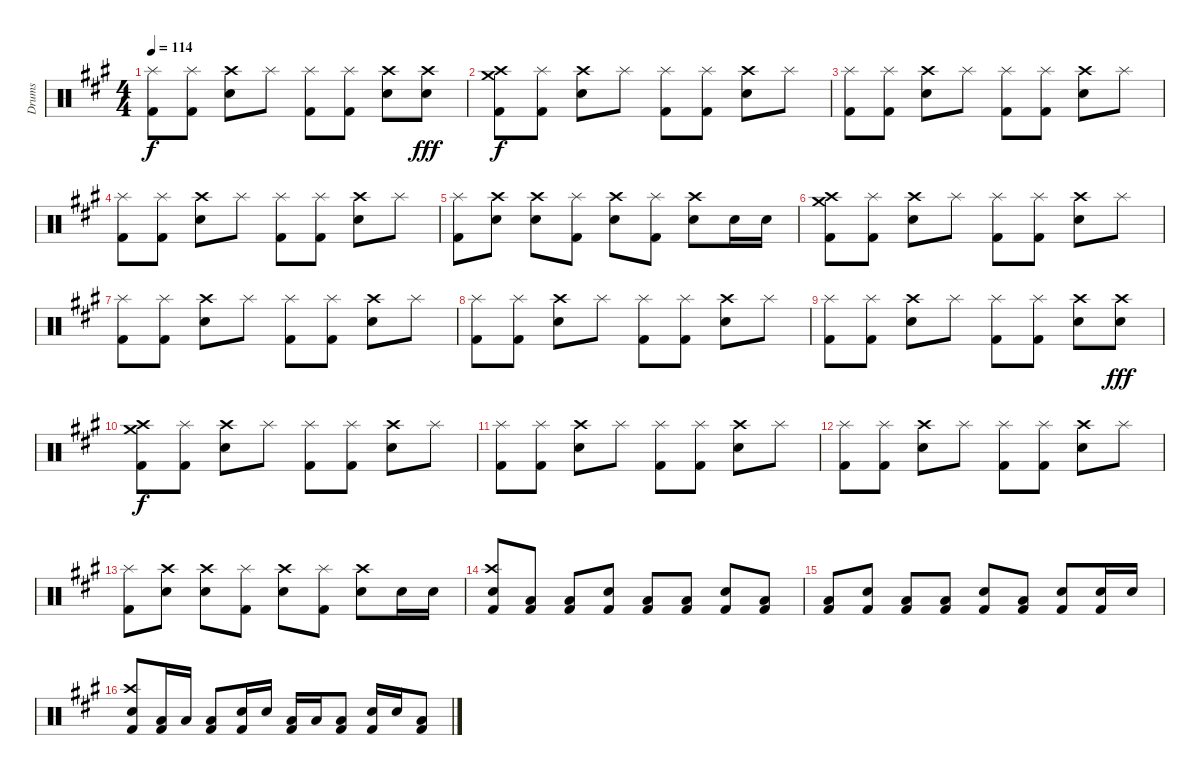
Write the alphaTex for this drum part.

\track ("Drums" "Drums") {instrument percussion}
\staff {score}
\articulation defaults
\ts (4 4)
\tempo 114
\clef neutral
\ks a
("Splash (hit)" "Kick (hit) 2").8{dy f} ("Splash (hit)" "Kick (hit) 2").8 ("Crash high (hit)" "Snare (hit) 2").8 "Splash (hit)".8 ("Splash (hit)" "Kick (hit) 2").8 ("Splash (hit)" "Kick (hit) 2").8 ("Crash high (hit)" "Snare (hit) 2").8 ("Crash high (hit)" "Snare (hit) 2").8{dy fff} |
("Crash high (hit)" "Crash medium (hit)" "Kick (hit) 2").8{dy f} ("Splash (hit)" "Kick (hit) 2").8 ("Crash high (hit)" "Snare (hit) 2").8 "Splash (hit)".8 ("Splash (hit)" "Kick (hit) 2").8 ("Splash (hit)" "Kick (hit) 2").8 ("Crash high (hit)" "Snare (hit) 2").8 "Splash (hit)".8 |
("Splash (hit)" "Kick (hit) 2").8 ("Splash (hit)" "Kick (hit) 2").8 ("Crash high (hit)" "Snare (hit) 2").8 "Splash (hit)".8 ("Splash (hit)" "Kick (hit) 2").8 ("Splash (hit)" "Kick (hit) 2").8 ("Crash high (hit)" "Snare (hit) 2").8 "Splash (hit)".8 |
("Splash (hit)" "Kick (hit) 2").8 ("Splash (hit)" "Kick (hit) 2").8 ("Crash high (hit)" "Snare (hit) 2").8 "Splash (hit)".8 ("Splash (hit)" "Kick (hit) 2").8 ("Splash (hit)" "Kick (hit) 2").8 ("Crash high (hit)" "Snare (hit) 2").8 "Splash (hit)".8 |
("Splash (hit)" "Kick (hit) 2").8 ("Crash high (hit)" "Snare (hit) 2").8 ("Crash high (hit)" "Snare (hit) 2").8 ("Splash (hit)" "Kick (hit) 2").8 ("Crash high (hit)" "Snare (hit) 2").8 ("Splash (hit)" "Kick (hit) 2").8 ("Crash high (hit)" "Snare (hit) 2").8 "Snare (hit) 2".16 "Snare (hit) 2".16 |
("Crash high (hit)" "Crash medium (hit)" "Kick (hit) 2").8 ("Splash (hit)" "Kick (hit) 2").8 ("Crash high (hit)" "Snare (hit) 2").8 "Splash (hit)".8 ("Splash (hit)" "Kick (hit) 2").8 ("Splash (hit)" "Kick (hit) 2").8 ("Crash high (hit)" "Snare (hit) 2").8 "Splash (hit)".8 |
("Splash (hit)" "Kick (hit) 2").8 ("Splash (hit)" "Kick (hit) 2").8 ("Crash high (hit)" "Snare (hit) 2").8 "Splash (hit)".8 ("Splash (hit)" "Kick (hit) 2").8 ("Splash (hit)" "Kick (hit) 2").8 ("Crash high (hit)" "Snare (hit) 2").8 "Splash (hit)".8 |
("Splash (hit)" "Kick (hit) 2").8 ("Splash (hit)" "Kick (hit) 2").8 ("Crash high (hit)" "Snare (hit) 2").8 "Splash (hit)".8 ("Splash (hit)" "Kick (hit) 2").8 ("Splash (hit)" "Kick (hit) 2").8 ("Crash high (hit)" "Snare (hit) 2").8 "Splash (hit)".8 |
("Splash (hit)" "Kick (hit) 2").8 ("Splash (hit)" "Kick (hit) 2").8 ("Crash high (hit)" "Snare (hit) 2").8 "Splash (hit)".8 ("Splash (hit)" "Kick (hit) 2").8 ("Splash (hit)" "Kick (hit) 2").8 ("Crash high (hit)" "Snare (hit) 2").8 ("Crash high (hit)" "Snare (hit) 2").8{dy fff} |
("Crash high (hit)" "Crash medium (hit)" "Kick (hit) 2").8{dy f} ("Splash (hit)" "Kick (hit) 2").8 ("Crash high (hit)" "Snare (hit) 2").8 "Splash (hit)".8 ("Splash (hit)" "Kick (hit) 2").8 ("Splash (hit)" "Kick (hit) 2").8 ("Crash high (hit)" "Snare (hit) 2").8 "Splash (hit)".8 |
("Splash (hit)" "Kick (hit) 2").8 ("Splash (hit)" "Kick (hit) 2").8 ("Crash high (hit)" "Snare (hit) 2").8 "Splash (hit)".8 ("Splash (hit)" "Kick (hit) 2").8 ("Splash (hit)" "Kick (hit) 2").8 ("Crash high (hit)" "Snare (hit) 2").8 "Splash (hit)".8 |
("Splash (hit)" "Kick (hit) 2").8 ("Splash (hit)" "Kick (hit) 2").8 ("Crash high (hit)" "Snare (hit) 2").8 "Splash (hit)".8 ("Splash (hit)" "Kick (hit) 2").8 ("Splash (hit)" "Kick (hit) 2").8 ("Crash high (hit)" "Snare (hit) 2").8 "Splash (hit)".8 |
("Splash (hit)" "Kick (hit) 2").8 ("Crash high (hit)" "Snare (hit) 2").8 ("Crash high (hit)" "Snare (hit) 2").8 ("Splash (hit)" "Kick (hit) 2").8 ("Crash high (hit)" "Snare (hit) 2").8 ("Splash (hit)" "Kick (hit) 2").8 ("Crash high (hit)" "Snare (hit) 2").8 "Snare (hit) 2".16 "Snare (hit) 2".16 |
("Crash high (hit)" "Snare (hit) 2" "Kick (hit) 2").8 ("Low Floor Tom (hit)" "Kick (hit) 2").8 ("Low Floor Tom (hit)" "Kick (hit) 2").8 ("Snare (hit) 2" "Kick (hit) 2").8 ("Low Floor Tom (hit)" "Kick (hit) 2").8 ("Low Floor Tom (hit)" "Kick (hit) 2").8 ("Snare (hit) 2" "Kick (hit) 2").8 ("Low Floor Tom (hit)" "Kick (hit) 2").8 |
("Low Floor Tom (hit)" "Kick (hit) 2").8 ("Snare (hit) 2" "Kick (hit) 2").8 ("Low Floor Tom (hit)" "Kick (hit) 2").8 ("Low Floor Tom (hit)" "Kick (hit) 2").8 ("Snare (hit) 2" "Kick (hit) 2").8 ("Low Floor Tom (hit)" "Kick (hit) 2").8 ("Snare (hit) 2" "Kick (hit) 2").8 ("Snare (hit) 2" "Kick (hit) 2").16 "Snare (hit) 2".16 |
("Crash high (hit)" "Snare (hit) 2" "Kick (hit) 2").8 ("Low Floor Tom (hit)" "Kick (hit) 2").16 "Low Floor Tom (hit)".16 ("Low Floor Tom (hit)" "Kick (hit) 2").8 ("Snare (hit) 2" "Kick (hit) 2").16 "Snare (hit) 2".16 ("Low Floor Tom (hit)" "Kick (hit) 2").16 "Low Floor Tom (hit)".16 ("Low Floor Tom (hit)" "Kick (hit) 2").8 ("Snare (hit) 2" "Kick (hit) 2").16 "Snare (hit) 2".16 ("Low Floor Tom (hit)" "Kick (hit) 2").8
